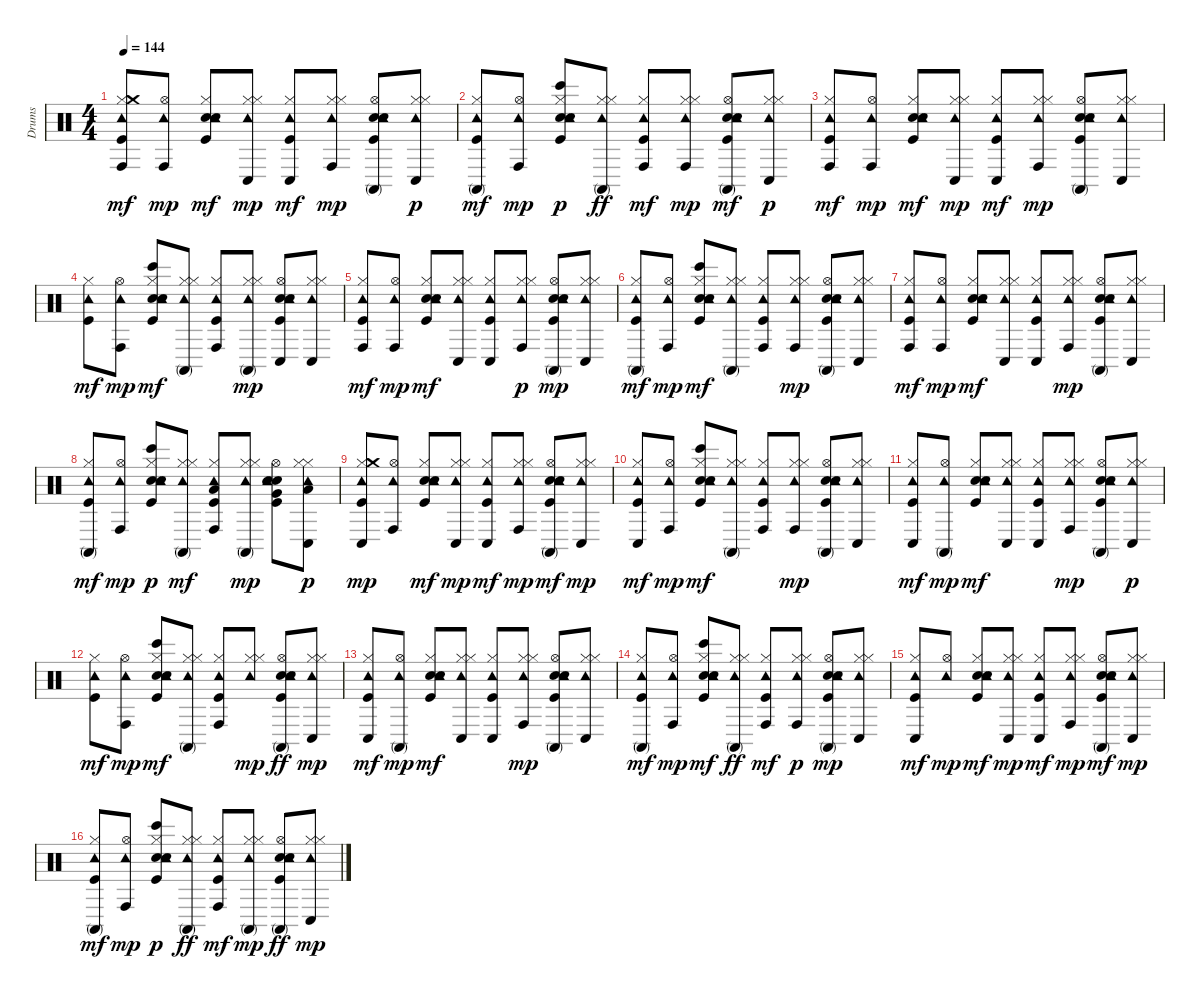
\track ("Drums" "Drums") {instrument percussion}
\staff {score}
\articulation defaults
\ts (4 4)
\tempo 144
\clef neutral
\ks c
("Kick (hit)" "Hi-Hat (closed)" "Tambourine (hit)" "Crash medium (hit)" "Conga high (hit)").8{dy mf} ("Hi-Hat (open)" "Tambourine (hit)" "Conga high (hit)").8{dy mp} ("Kick (hit)" "Snare (hit) 2" "Hand Clap (hit)" "Hi-Hat (closed)" "Tambourine (hit)").8{dy mf} ("Hi-Hat (closed)" "Tambourine (hit)" "Conga low (hit)" "Hi-Hat (closed)").8{dy mp} ("Kick (hit)" "Hi-Hat (closed)" "Tambourine (hit)" "Conga low (hit)").8{dy mf} ("Hi-Hat (closed)" "Tambourine (hit)" "Conga high (hit)" "Hi-Hat (closed)").8{dy mp} ("Kick (hit)" "Snare (hit) 2" "Hand Clap (hit)" "Hi-Hat (open)" "Tambourine (hit)" "Conga high (mute)").8 ("Hi-Hat (closed)" "Tambourine (hit)" "Conga low (hit)" "Hi-Hat (closed)").8{dy p} |
("Kick (hit)" "Hi-Hat (closed)" "Tambourine (hit)" "Conga high (mute)").8{dy mf} ("Hi-Hat (open)" "Tambourine (hit)" "Conga high (hit)").8{dy mp} ("Kick (hit)" "Snare (hit) 2" "Hand Clap (hit)" "Hi-Hat (closed)" "Tambourine (hit)" "Bongo High (hit)").8{dy p} ("Hi-Hat (closed)" "Tambourine (hit)" "Conga high (mute)" "Hi-Hat (closed)").8{dy ff} ("Kick (hit)" "Hi-Hat (closed)" "Tambourine (hit)" "Conga high (hit)").8{dy mf} ("Hi-Hat (closed)" "Tambourine (hit)" "Conga high (hit)" "Hi-Hat (closed)").8{dy mp} ("Kick (hit)" "Snare (hit) 2" "Hand Clap (hit)" "Hi-Hat (open)" "Tambourine (hit)" "Conga high (mute)").8{dy mf} ("Hi-Hat (closed)" "Tambourine (hit)" "Conga low (hit)" "Hi-Hat (closed)").8{dy p} |
("Kick (hit)" "Hi-Hat (closed)" "Tambourine (hit)" "Conga high (hit)").8{dy mf} ("Hi-Hat (open)" "Tambourine (hit)" "Conga high (hit)").8{dy mp} ("Kick (hit)" "Snare (hit) 2" "Hand Clap (hit)" "Hi-Hat (closed)" "Tambourine (hit)").8{dy mf} ("Hi-Hat (closed)" "Tambourine (hit)" "Conga low (hit)" "Hi-Hat (closed)").8{dy mp} ("Kick (hit)" "Hi-Hat (closed)" "Tambourine (hit)" "Conga low (hit)").8{dy mf} ("Hi-Hat (closed)" "Tambourine (hit)" "Conga high (hit)" "Hi-Hat (closed)").8{dy mp} ("Kick (hit)" "Snare (hit) 2" "Hand Clap (hit)" "Hi-Hat (open)" "Tambourine (hit)" "Conga high (mute)").8 ("Hi-Hat (closed)" "Tambourine (hit)" "Conga low (hit)" "Hi-Hat (closed)").8 |
("Kick (hit)" "Hi-Hat (closed)" "Tambourine (hit)").8{dy mf} ("Hi-Hat (open)" "Tambourine (hit)" "Conga high (hit)").8{dy mp} ("Kick (hit)" "Snare (hit) 2" "Hand Clap (hit)" "Hi-Hat (closed)" "Tambourine (hit)" "Bongo High (hit)").8{dy mf} ("Hi-Hat (closed)" "Tambourine (hit)" "Conga high (mute)" "Hi-Hat (closed)").8 ("Kick (hit)" "Hi-Hat (closed)" "Tambourine (hit)" "Conga high (hit)").8 ("Hi-Hat (closed)" "Tambourine (hit)" "Conga high (mute)" "Hi-Hat (closed)").8{dy mp} ("Kick (hit)" "Snare (hit) 2" "Hand Clap (hit)" "Hi-Hat (open)" "Tambourine (hit)" "Conga low (hit)").8 ("Hi-Hat (closed)" "Tambourine (hit)" "Conga low (hit)" "Hi-Hat (closed)").8 |
("Kick (hit)" "Hi-Hat (closed)" "Tambourine (hit)" "Conga high (hit)").8{dy mf} ("Hi-Hat (open)" "Tambourine (hit)" "Conga high (hit)").8{dy mp} ("Kick (hit)" "Snare (hit) 2" "Hand Clap (hit)" "Hi-Hat (closed)" "Tambourine (hit)").8{dy mf} ("Hi-Hat (closed)" "Tambourine (hit)" "Conga low (hit)" "Hi-Hat (closed)").8 ("Kick (hit)" "Hi-Hat (closed)" "Tambourine (hit)" "Conga low (hit)").8 ("Hi-Hat (closed)" "Tambourine (hit)" "Conga high (hit)" "Hi-Hat (closed)").8{dy p} ("Kick (hit)" "Snare (hit) 2" "Hand Clap (hit)" "Hi-Hat (open)" "Tambourine (hit)" "Conga high (mute)").8{dy mp} ("Hi-Hat (closed)" "Tambourine (hit)" "Conga low (hit)" "Hi-Hat (closed)").8 |
("Kick (hit)" "Hi-Hat (closed)" "Tambourine (hit)" "Conga high (mute)").8{dy mf} ("Hi-Hat (open)" "Tambourine (hit)" "Conga high (hit)").8{dy mp} ("Kick (hit)" "Snare (hit) 2" "Hand Clap (hit)" "Hi-Hat (closed)" "Tambourine (hit)" "Bongo High (hit)").8{dy mf} ("Hi-Hat (closed)" "Tambourine (hit)" "Conga high (mute)" "Hi-Hat (closed)").8 ("Kick (hit)" "Hi-Hat (closed)" "Tambourine (hit)" "Conga high (hit)").8 ("Hi-Hat (closed)" "Tambourine (hit)" "Conga high (hit)" "Hi-Hat (closed)").8{dy mp} ("Kick (hit)" "Snare (hit) 2" "Hand Clap (hit)" "Hi-Hat (open)" "Tambourine (hit)" "Conga high (mute)").8 ("Hi-Hat (closed)" "Tambourine (hit)" "Conga low (hit)" "Hi-Hat (closed)").8 |
("Kick (hit)" "Hi-Hat (closed)" "Tambourine (hit)" "Conga high (hit)").8{dy mf} ("Hi-Hat (open)" "Tambourine (hit)" "Conga high (hit)").8{dy mp} ("Kick (hit)" "Snare (hit) 2" "Hand Clap (hit)" "Hi-Hat (closed)" "Tambourine (hit)").8{dy mf} ("Hi-Hat (closed)" "Tambourine (hit)" "Conga low (hit)" "Hi-Hat (closed)").8 ("Kick (hit)" "Hi-Hat (closed)" "Tambourine (hit)" "Conga low (hit)").8 ("Hi-Hat (closed)" "Tambourine (hit)" "Conga high (hit)" "Hi-Hat (closed)").8{dy mp} ("Kick (hit)" "Snare (hit) 2" "Hand Clap (hit)" "Hi-Hat (open)" "Tambourine (hit)" "Conga high (mute)").8 ("Hi-Hat (closed)" "Tambourine (hit)" "Conga low (hit)" "Hi-Hat (closed)").8 |
("Kick (hit)" "Hi-Hat (closed)" "Tambourine (hit)" "Conga high (mute)").8{dy mf} ("Hi-Hat (open)" "Tambourine (hit)" "Conga high (hit)").8{dy mp} ("Kick (hit)" "Snare (hit) 2" "Hand Clap (hit)" "Hi-Hat (closed)" "Tambourine (hit)" "Bongo High (hit)").8{dy p} ("Hi-Hat (closed)" "Tambourine (hit)" "Conga high (mute)" "Hi-Hat (closed)").8{dy mf} ("Kick (hit)" "Hi-Hat (closed)" "Low Tom (hit)" "Tambourine (hit)" "Conga high (hit)").8 ("Hi-Hat (closed)" "Tambourine (hit)" "Conga high (mute)" "Hi-Hat (closed)").8{dy mp} ("Kick (hit)" "Snare (hit) 2" "Hand Clap (hit)" "Very Low Tom (hit)" "Hi-Hat (open)" "Tambourine (hit)").8 ("Low Floor Tom (hit)" "Hi-Hat (closed)" "Tambourine (hit)" "Conga low (hit)" "Hi-Hat (closed)").8{dy p} |
("Kick (hit)" "Hi-Hat (closed)" "Tambourine (hit)" "Crash medium (hit)" "Conga low (hit)").8{dy mp} ("Hi-Hat (open)" "Tambourine (hit)" "Conga high (hit)").8 ("Kick (hit)" "Snare (hit) 2" "Hand Clap (hit)" "Hi-Hat (closed)" "Tambourine (hit)").8{dy mf} ("Hi-Hat (closed)" "Tambourine (hit)" "Conga low (hit)" "Hi-Hat (closed)").8{dy mp} ("Kick (hit)" "Hi-Hat (closed)" "Tambourine (hit)" "Conga low (hit)").8{dy mf} ("Hi-Hat (closed)" "Tambourine (hit)" "Conga high (hit)" "Hi-Hat (closed)").8{dy mp} ("Kick (hit)" "Snare (hit) 2" "Hand Clap (hit)" "Hi-Hat (open)" "Tambourine (hit)" "Conga high (mute)").8{dy mf} ("Hi-Hat (closed)" "Tambourine (hit)" "Conga low (hit)" "Hi-Hat (closed)").8{dy mp} |
("Kick (hit)" "Hi-Hat (closed)" "Tambourine (hit)" "Conga low (hit)").8{dy mf} ("Hi-Hat (open)" "Tambourine (hit)" "Conga high (hit)").8{dy mp} ("Kick (hit)" "Snare (hit) 2" "Hand Clap (hit)" "Hi-Hat (closed)" "Tambourine (hit)" "Bongo High (hit)").8{dy mf} ("Hi-Hat (closed)" "Tambourine (hit)" "Conga high (mute)" "Hi-Hat (closed)").8 ("Kick (hit)" "Hi-Hat (closed)" "Tambourine (hit)" "Conga high (hit)").8 ("Hi-Hat (closed)" "Tambourine (hit)" "Conga high (hit)" "Hi-Hat (closed)").8{dy mp} ("Kick (hit)" "Snare (hit) 2" "Hand Clap (hit)" "Hi-Hat (open)" "Tambourine (hit)" "Conga high (mute)").8 ("Hi-Hat (closed)" "Tambourine (hit)" "Conga low (hit)" "Hi-Hat (closed)").8 |
("Kick (hit)" "Hi-Hat (closed)" "Tambourine (hit)" "Conga low (hit)").8{dy mf} ("Hi-Hat (open)" "Tambourine (hit)" "Conga high (mute)").8{dy mp} ("Kick (hit)" "Snare (hit) 2" "Hand Clap (hit)" "Hi-Hat (closed)" "Tambourine (hit)").8{dy mf} ("Hi-Hat (closed)" "Tambourine (hit)" "Conga low (hit)" "Hi-Hat (closed)").8 ("Kick (hit)" "Hi-Hat (closed)" "Tambourine (hit)" "Conga low (hit)").8 ("Hi-Hat (closed)" "Tambourine (hit)" "Conga high (hit)" "Hi-Hat (closed)").8{dy mp} ("Kick (hit)" "Snare (hit) 2" "Hand Clap (hit)" "Hi-Hat (open)" "Tambourine (hit)" "Conga high (mute)").8 ("Hi-Hat (closed)" "Tambourine (hit)" "Conga low (hit)" "Hi-Hat (closed)").8{dy p} |
("Kick (hit)" "Hi-Hat (closed)" "Tambourine (hit)").8{dy mf} ("Hi-Hat (open)" "Tambourine (hit)" "Conga high (hit)").8{dy mp} ("Kick (hit)" "Snare (hit) 2" "Hand Clap (hit)" "Hi-Hat (closed)" "Tambourine (hit)" "Bongo High (hit)").8{dy mf} ("Hi-Hat (closed)" "Tambourine (hit)" "Conga high (mute)" "Hi-Hat (closed)").8 ("Kick (hit)" "Hi-Hat (closed)" "Tambourine (hit)" "Conga high (hit)").8 ("Hi-Hat (closed)" "Tambourine (hit)" "Hi-Hat (closed)").8{dy mp} ("Kick (hit)" "Snare (hit) 2" "Hand Clap (hit)" "Hi-Hat (open)" "Tambourine (hit)" "Conga high (mute)").8{dy ff} ("Hi-Hat (closed)" "Tambourine (hit)" "Conga low (hit)" "Hi-Hat (closed)").8{dy mp} |
("Kick (hit)" "Hi-Hat (closed)" "Tambourine (hit)" "Conga low (hit)").8{dy mf} ("Hi-Hat (open)" "Tambourine (hit)" "Conga high (mute)").8{dy mp} ("Kick (hit)" "Snare (hit) 2" "Hand Clap (hit)" "Hi-Hat (closed)" "Tambourine (hit)").8{dy mf} ("Hi-Hat (closed)" "Tambourine (hit)" "Conga low (hit)" "Hi-Hat (closed)").8 ("Kick (hit)" "Hi-Hat (closed)" "Tambourine (hit)" "Conga low (hit)").8 ("Hi-Hat (closed)" "Tambourine (hit)" "Conga high (hit)" "Hi-Hat (closed)").8{dy mp} ("Kick (hit)" "Snare (hit) 2" "Hand Clap (hit)" "Hi-Hat (open)" "Tambourine (hit)" "Conga high (mute)").8 ("Hi-Hat (closed)" "Tambourine (hit)" "Conga low (hit)" "Hi-Hat (closed)").8 |
("Kick (hit)" "Hi-Hat (closed)" "Tambourine (hit)" "Conga high (mute)").8{dy mf} ("Hi-Hat (open)" "Tambourine (hit)" "Conga high (hit)").8{dy mp} ("Kick (hit)" "Snare (hit) 2" "Hand Clap (hit)" "Hi-Hat (closed)" "Tambourine (hit)" "Bongo High (hit)").8{dy mf} ("Hi-Hat (closed)" "Tambourine (hit)" "Conga high (mute)" "Hi-Hat (closed)").8{dy ff} ("Kick (hit)" "Hi-Hat (closed)" "Tambourine (hit)" "Conga high (hit)").8{dy mf} ("Hi-Hat (closed)" "Tambourine (hit)" "Conga high (hit)" "Hi-Hat (closed)").8{dy p} ("Kick (hit)" "Snare (hit) 2" "Hand Clap (hit)" "Hi-Hat (open)" "Tambourine (hit)" "Conga high (mute)").8{dy mp} ("Hi-Hat (closed)" "Tambourine (hit)" "Conga low (hit)" "Hi-Hat (closed)").8 |
("Kick (hit)" "Hi-Hat (closed)" "Tambourine (hit)" "Conga low (hit)").8{dy mf} ("Hi-Hat (open)" "Tambourine (hit)").8{dy mp} ("Kick (hit)" "Snare (hit) 2" "Hand Clap (hit)" "Hi-Hat (closed)" "Tambourine (hit)").8{dy mf} ("Hi-Hat (closed)" "Tambourine (hit)" "Conga low (hit)" "Hi-Hat (closed)").8{dy mp} ("Kick (hit)" "Hi-Hat (closed)" "Tambourine (hit)" "Conga low (hit)").8{dy mf} ("Hi-Hat (closed)" "Tambourine (hit)" "Conga high (hit)" "Hi-Hat (closed)").8{dy mp} ("Kick (hit)" "Snare (hit) 2" "Hand Clap (hit)" "Hi-Hat (open)" "Tambourine (hit)" "Conga high (mute)").8{dy mf} ("Hi-Hat (closed)" "Tambourine (hit)" "Conga low (hit)" "Hi-Hat (closed)").8{dy mp} |
("Kick (hit)" "Hi-Hat (closed)" "Tambourine (hit)" "Conga high (mute)").8{dy mf} ("Hi-Hat (open)" "Tambourine (hit)" "Conga high (hit)").8{dy mp} ("Kick (hit)" "Snare (hit) 2" "Hand Clap (hit)" "Hi-Hat (closed)" "Tambourine (hit)" "Bongo High (hit)").8{dy p} ("Hi-Hat (closed)" "Tambourine (hit)" "Conga high (mute)" "Hi-Hat (closed)").8{dy ff} ("Kick (hit)" "Hi-Hat (closed)" "Tambourine (hit)" "Conga high (hit)").8{dy mf} ("Hi-Hat (closed)" "Tambourine (hit)" "Conga high (mute)" "Hi-Hat (closed)").8{dy mp} ("Kick (hit)" "Snare (hit) 2" "Hand Clap (hit)" "Hi-Hat (open)" "Tambourine (hit)" "Conga high (mute)").8{dy ff} ("Hi-Hat (closed)" "Tambourine (hit)" "Conga low (hit)" "Hi-Hat (closed)").8{dy mp}
